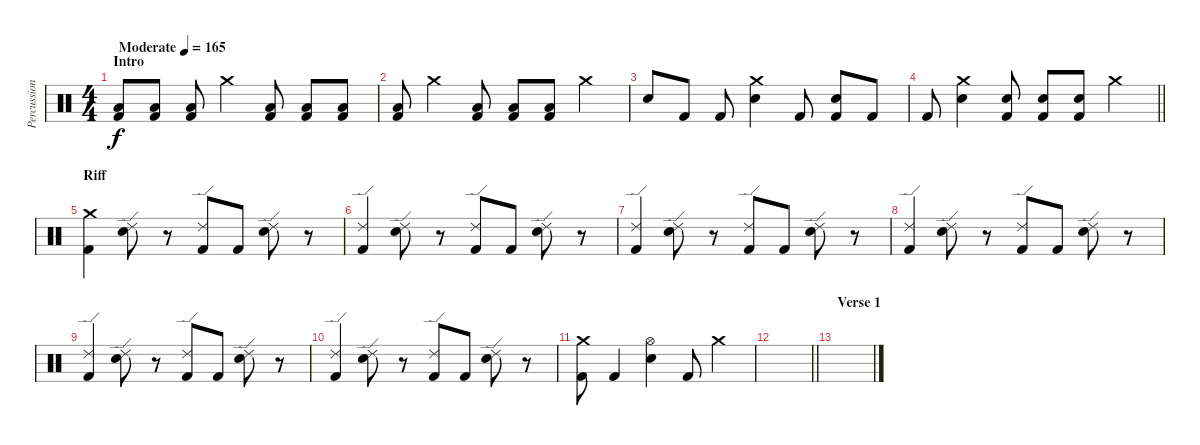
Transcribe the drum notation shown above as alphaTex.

\track ("Percussion" "Percussion") {instrument percussion}
\staff {score}
\articulation defaults
\ts (4 4)
\section ("" "Intro")
\tempo (165 "Moderate")
\clef neutral
\ks c
("Low Floor Tom (hit)" "Kick (hit) 2").8{dy f} ("Low Floor Tom (hit)" "Kick (hit) 2").8 ("Low Floor Tom (hit)" "Kick (hit) 2").8 "Crash medium (hit)".4 ("Low Floor Tom (hit)" "Kick (hit) 2").8 ("Low Floor Tom (hit)" "Kick (hit) 2").8 ("Low Floor Tom (hit)" "Kick (hit) 2").8 |
("Low Floor Tom (hit)" "Kick (hit) 2").8 "Crash medium (hit)".4 ("Low Floor Tom (hit)" "Kick (hit) 2").8 ("Low Floor Tom (hit)" "Kick (hit) 2").8 ("Low Floor Tom (hit)" "Kick (hit) 2").8 "Crash medium (hit)".4 |
"Electric Snare (hit)".8 "Kick (hit) 2".8 "Kick (hit) 2".8 ("Electric Snare (hit)" "Crash medium (hit)").4 "Kick (hit) 2".8 ("Electric Snare (hit)" "Kick (hit) 2").8 "Kick (hit) 2".8 |
\barLineRight lightlight "Kick (hit) 2".8
("Electric Snare (hit)" "Crash medium (hit)").4 ("Electric Snare (hit)" "Kick (hit) 2").8 ("Electric Snare (hit)" "Kick (hit) 2").8 ("Electric Snare (hit)" "Kick (hit) 2").8 "Crash medium (hit)".4 |
\section ("" "Riff")
("Crash medium (hit)" "Kick (hit) 2").4 ("Ride (edge) 2" "Electric Snare (hit)").8 r.8 ("Ride (edge) 2" "Kick (hit) 2").8 "Kick (hit) 2".8 ("Ride (edge) 2" "Electric Snare (hit)").8 r.8 |
("Ride (edge) 2" "Kick (hit) 2").4 ("Ride (edge) 2" "Electric Snare (hit)").8 r.8 ("Ride (edge) 2" "Kick (hit) 2").8 "Kick (hit) 2".8 ("Ride (edge) 2" "Electric Snare (hit)").8 r.8 |
("Ride (edge) 2" "Kick (hit) 2").4 ("Ride (edge) 2" "Electric Snare (hit)").8 r.8 ("Ride (edge) 2" "Kick (hit) 2").8 "Kick (hit) 2".8 ("Ride (edge) 2" "Electric Snare (hit)").8 r.8 |
("Ride (edge) 2" "Kick (hit) 2").4 ("Ride (edge) 2" "Electric Snare (hit)").8 r.8 ("Ride (edge) 2" "Kick (hit) 2").8 "Kick (hit) 2".8 ("Ride (edge) 2" "Electric Snare (hit)").8 r.8 |
("Ride (edge) 2" "Kick (hit) 2").4 ("Ride (edge) 2" "Electric Snare (hit)").8 r.8 ("Ride (edge) 2" "Kick (hit) 2").8 "Kick (hit) 2".8 ("Ride (edge) 2" "Electric Snare (hit)").8 r.8 |
("Ride (edge) 2" "Kick (hit) 2").4 ("Ride (edge) 2" "Electric Snare (hit)").8 r.8 ("Ride (edge) 2" "Kick (hit) 2").8 "Kick (hit) 2".8 ("Ride (edge) 2" "Electric Snare (hit)").8 r.8 |
("Crash medium (hit)" "Kick (hit) 2").8 "Kick (hit) 2".4 ("Hi-Hat (open)" "Electric Snare (hit)").4 "Kick (hit) 2".8 "Crash medium (hit)".4 |
\barLineRight lightlight
|
\section ("" "Verse 1 ")
